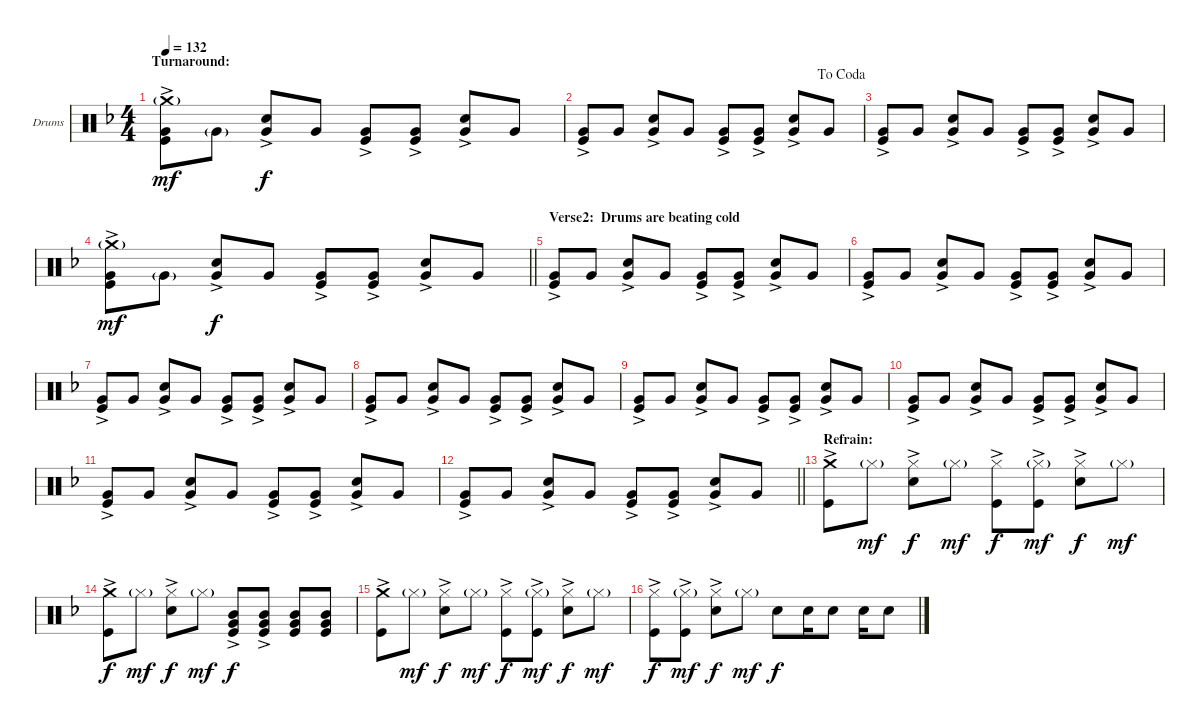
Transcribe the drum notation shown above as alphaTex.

\bracketExtendMode groupsimilarinstruments
\firstSystemTrackNameOrientation horizontal
\otherSystemsTrackNameOrientation horizontal
\track ("Drumkit" "Drums") {instrument percussion}
\staff {score}
\articulation defaults
\ts (4 4)
\section ("" "Turnaround: ")
\tempo 132
\clef neutral
\ks f
("Crash medium (hit)"{g} "Very Low Tom (hit)"{ac} "Kick (hit)"{ac}).8{dy mf} "Very Low Tom (hit)"{g}.8 ("Snare (hit) 2"{ac} "Very Low Tom (hit)"{ac}).8{dy f} "Very Low Tom (hit)".8 ("Very Low Tom (hit)"{ac} "Kick (hit)"{ac}).8 ("Very Low Tom (hit)" "Kick (hit)"{ac}).8 ("Snare (hit) 2"{ac} "Very Low Tom (hit)"{ac}).8 "Very Low Tom (hit)".8 |
\jump dacoda
("Very Low Tom (hit)"{ac} "Kick (hit)"{ac}).8 "Very Low Tom (hit)".8 ("Snare (hit) 2"{ac} "Very Low Tom (hit)"{ac}).8 "Very Low Tom (hit)".8 ("Very Low Tom (hit)"{ac} "Kick (hit)"{ac}).8 ("Very Low Tom (hit)" "Kick (hit)"{ac}).8 ("Snare (hit) 2"{ac} "Very Low Tom (hit)"{ac}).8 "Very Low Tom (hit)".8 |
("Very Low Tom (hit)"{ac} "Kick (hit)"{ac}).8 "Very Low Tom (hit)".8 ("Snare (hit) 2"{ac} "Very Low Tom (hit)"{ac}).8 "Very Low Tom (hit)".8 ("Very Low Tom (hit)"{ac} "Kick (hit)"{ac}).8 ("Very Low Tom (hit)" "Kick (hit)"{ac}).8 ("Snare (hit) 2"{ac} "Very Low Tom (hit)"{ac}).8 "Very Low Tom (hit)".8 |
\barLineRight lightlight
("Crash medium (hit)"{g} "Very Low Tom (hit)"{ac} "Kick (hit)"{ac}).8{dy mf} "Very Low Tom (hit)"{g}.8 ("Snare (hit) 2"{ac} "Very Low Tom (hit)"{ac}).8{dy f} "Very Low Tom (hit)".8 ("Very Low Tom (hit)"{ac} "Kick (hit)"{ac}).8 ("Very Low Tom (hit)" "Kick (hit)"{ac}).8 ("Snare (hit) 2"{ac} "Very Low Tom (hit)"{ac}).8 "Very Low Tom (hit)".8 |
\section ("" "Verse2:  Drums are beating cold")
("Very Low Tom (hit)"{ac} "Kick (hit)"{ac}).8 "Very Low Tom (hit)".8 ("Snare (hit) 2"{ac} "Very Low Tom (hit)"{ac}).8 "Very Low Tom (hit)".8 ("Very Low Tom (hit)"{ac} "Kick (hit)"{ac}).8 ("Very Low Tom (hit)" "Kick (hit)"{ac}).8 ("Snare (hit) 2"{ac} "Very Low Tom (hit)"{ac}).8 "Very Low Tom (hit)".8 |
("Very Low Tom (hit)"{ac} "Kick (hit)"{ac}).8 "Very Low Tom (hit)".8 ("Snare (hit) 2"{ac} "Very Low Tom (hit)"{ac}).8 "Very Low Tom (hit)".8 ("Very Low Tom (hit)"{ac} "Kick (hit)"{ac}).8 ("Very Low Tom (hit)" "Kick (hit)"{ac}).8 ("Snare (hit) 2"{ac} "Very Low Tom (hit)"{ac}).8 "Very Low Tom (hit)".8 |
("Very Low Tom (hit)"{ac} "Kick (hit)"{ac}).8 "Very Low Tom (hit)".8 ("Snare (hit) 2"{ac} "Very Low Tom (hit)"{ac}).8 "Very Low Tom (hit)".8 ("Very Low Tom (hit)"{ac} "Kick (hit)"{ac}).8 ("Very Low Tom (hit)" "Kick (hit)"{ac}).8 ("Snare (hit) 2"{ac} "Very Low Tom (hit)"{ac}).8 "Very Low Tom (hit)".8 |
("Very Low Tom (hit)"{ac} "Kick (hit)"{ac}).8 "Very Low Tom (hit)".8 ("Snare (hit) 2"{ac} "Very Low Tom (hit)"{ac}).8 "Very Low Tom (hit)".8 ("Very Low Tom (hit)"{ac} "Kick (hit)"{ac}).8 ("Very Low Tom (hit)" "Kick (hit)"{ac}).8 ("Snare (hit) 2"{ac} "Very Low Tom (hit)"{ac}).8 "Very Low Tom (hit)".8 |
("Very Low Tom (hit)"{ac} "Kick (hit)"{ac}).8 "Very Low Tom (hit)".8 ("Snare (hit) 2"{ac} "Very Low Tom (hit)"{ac}).8 "Very Low Tom (hit)".8 ("Very Low Tom (hit)"{ac} "Kick (hit)"{ac}).8 ("Very Low Tom (hit)" "Kick (hit)"{ac}).8 ("Snare (hit) 2"{ac} "Very Low Tom (hit)"{ac}).8 "Very Low Tom (hit)".8 |
("Very Low Tom (hit)"{ac} "Kick (hit)"{ac}).8 "Very Low Tom (hit)".8 ("Snare (hit) 2"{ac} "Very Low Tom (hit)"{ac}).8 "Very Low Tom (hit)".8 ("Very Low Tom (hit)"{ac} "Kick (hit)"{ac}).8 ("Very Low Tom (hit)" "Kick (hit)"{ac}).8 ("Snare (hit) 2"{ac} "Very Low Tom (hit)"{ac}).8 "Very Low Tom (hit)".8 |
("Very Low Tom (hit)"{ac} "Kick (hit)"{ac}).8 "Very Low Tom (hit)".8 ("Snare (hit) 2"{ac} "Very Low Tom (hit)"{ac}).8 "Very Low Tom (hit)".8 ("Very Low Tom (hit)"{ac} "Kick (hit)"{ac}).8 ("Very Low Tom (hit)" "Kick (hit)"{ac}).8 ("Snare (hit) 2"{ac} "Very Low Tom (hit)"{ac}).8 "Very Low Tom (hit)".8 |
\barLineRight lightlight
("Very Low Tom (hit)"{ac} "Kick (hit)"{ac}).8 "Very Low Tom (hit)".8 ("Snare (hit) 2"{ac} "Very Low Tom (hit)"{ac}).8 "Very Low Tom (hit)".8 ("Very Low Tom (hit)"{ac} "Kick (hit)"{ac}).8 ("Very Low Tom (hit)" "Kick (hit)"{ac}).8 ("Snare (hit) 2"{ac} "Very Low Tom (hit)"{ac}).8 "Very Low Tom (hit)".8 |
\section ("" "Refrain:")
("Crash medium (hit)" "Kick (hit)"{ac}).8 "Hi-Hat (closed)"{g}.8{dy mf} ("Hi-Hat (closed)" "Snare (hit) 2"{ac}).8{dy f} "Hi-Hat (closed)"{g}.8{dy mf} ("Hi-Hat (closed)" "Kick (hit)"{ac}).8{dy f} ("Hi-Hat (closed)"{g} "Kick (hit)"{ac}).8{dy mf} ("Hi-Hat (closed)" "Snare (hit) 2"{ac}).8{dy f} "Hi-Hat (closed)"{g}.8{dy mf} |
("Crash medium (hit)" "Kick (hit)"{ac}).8{dy f} "Hi-Hat (closed)"{g}.8{dy mf} ("Hi-Hat (closed)" "Snare (hit) 2"{ac}).8{dy f} "Hi-Hat (closed)"{g}.8{dy mf} ("Mid Tom (hit)" "Very Low Tom (hit)" "Kick (hit)"{ac}).8{dy f} ("Mid Tom (hit)" "Very Low Tom (hit)" "Kick (hit)"{ac}).8 ("Mid Tom (hit)" "Very Low Tom (hit)" "Kick (hit)").8 ("Mid Tom (hit)" "Very Low Tom (hit)" "Kick (hit)").8 |
("Crash medium (hit)" "Kick (hit)"{ac}).8 "Hi-Hat (closed)"{g}.8{dy mf} ("Hi-Hat (closed)" "Snare (hit) 2"{ac}).8{dy f} "Hi-Hat (closed)"{g}.8{dy mf} ("Hi-Hat (closed)" "Kick (hit)"{ac}).8{dy f} ("Hi-Hat (closed)"{g} "Kick (hit)"{ac}).8{dy mf} ("Hi-Hat (closed)" "Snare (hit) 2"{ac}).8{dy f} "Hi-Hat (closed)"{g}.8{dy mf} |
("Hi-Hat (closed)" "Kick (hit)"{ac}).8{dy f} ("Hi-Hat (closed)"{g} "Kick (hit)"{ac}).8{dy mf} ("Hi-Hat (closed)" "Snare (hit) 2"{ac}).8{dy f} "Hi-Hat (closed)"{g}.8{dy mf} "Snare (hit) 2".8{dy f} "Snare (hit) 2".16 "Snare (hit) 2".8 "Snare (hit) 2".16 "Snare (hit) 2".8
